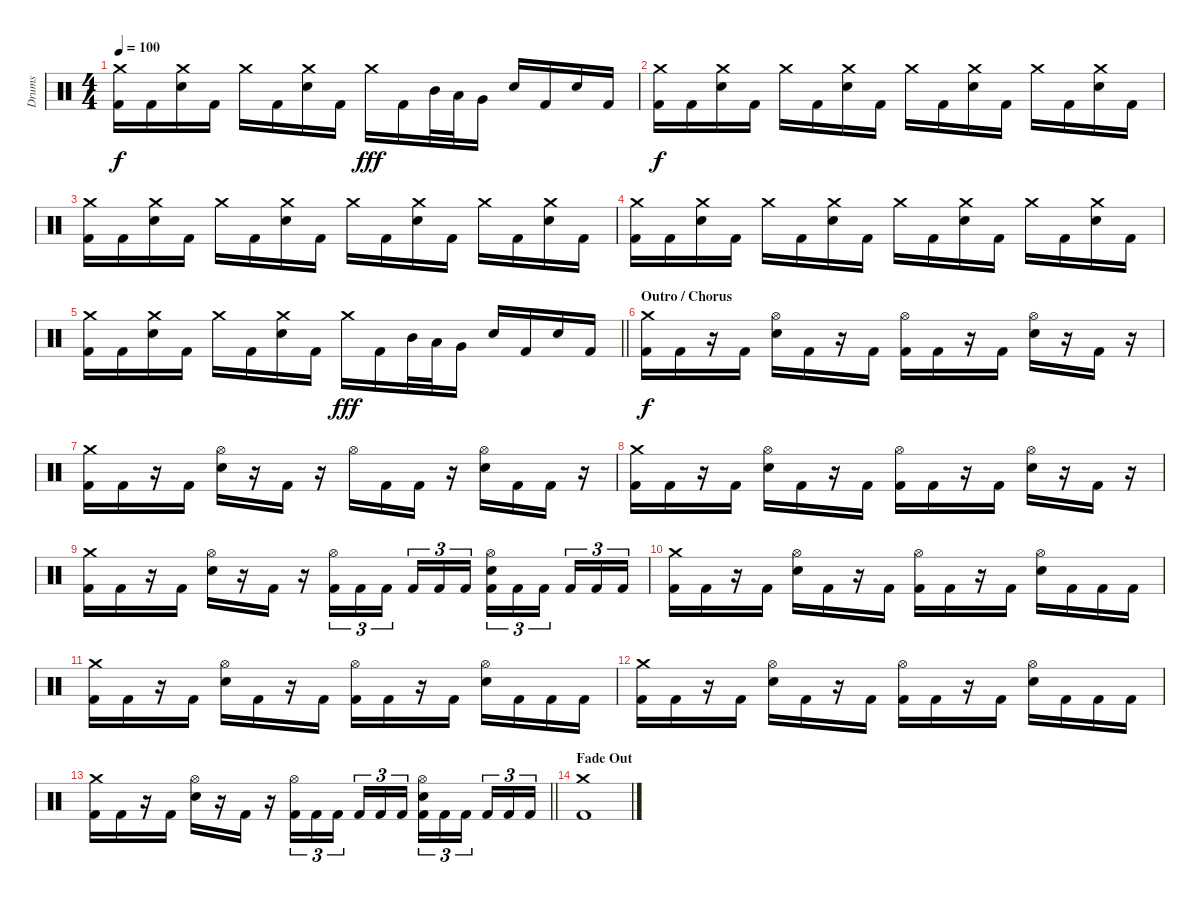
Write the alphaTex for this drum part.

\track ("Drums" "Drums") {instrument percussion}
\staff {score}
\articulation defaults
\ts (4 4)
\tempo 100
\clef neutral
\ks c
("Crash medium (hit)" "Kick (hit) 2").16{dy f} "Kick (hit) 2".16 ("Crash medium (hit)" "Electric Snare (hit)").16 "Kick (hit) 2".16 "Crash medium (hit)".16 "Kick (hit) 2".16 ("Crash medium (hit)" "Electric Snare (hit)").16 "Kick (hit) 2".16 "Crash medium (hit)".16{dy fff} "Kick (hit) 2".16 "Mid Tom (hit)".32 "Low Tom (hit)".32 "Very Low Tom (hit)".16 "Electric Snare (hit)".16 "Kick (hit) 2".16 "Electric Snare (hit)".16 "Kick (hit) 2".16 |
("Crash medium (hit)" "Kick (hit) 2").16{dy f} "Kick (hit) 2".16 ("Crash medium (hit)" "Electric Snare (hit)").16 "Kick (hit) 2".16 "Crash medium (hit)".16 "Kick (hit) 2".16 ("Crash medium (hit)" "Electric Snare (hit)").16 "Kick (hit) 2".16 "Crash medium (hit)".16 "Kick (hit) 2".16 ("Crash medium (hit)" "Electric Snare (hit)").16 "Kick (hit) 2".16 "Crash medium (hit)".16 "Kick (hit) 2".16 ("Crash medium (hit)" "Electric Snare (hit)").16 "Kick (hit) 2".16 |
("Crash medium (hit)" "Kick (hit) 2").16 "Kick (hit) 2".16 ("Crash medium (hit)" "Electric Snare (hit)").16 "Kick (hit) 2".16 "Crash medium (hit)".16 "Kick (hit) 2".16 ("Crash medium (hit)" "Electric Snare (hit)").16 "Kick (hit) 2".16 "Crash medium (hit)".16 "Kick (hit) 2".16 ("Crash medium (hit)" "Electric Snare (hit)").16 "Kick (hit) 2".16 "Crash medium (hit)".16 "Kick (hit) 2".16 ("Crash medium (hit)" "Electric Snare (hit)").16 "Kick (hit) 2".16 |
("Crash medium (hit)" "Kick (hit) 2").16 "Kick (hit) 2".16 ("Crash medium (hit)" "Electric Snare (hit)").16 "Kick (hit) 2".16 "Crash medium (hit)".16 "Kick (hit) 2".16 ("Crash medium (hit)" "Electric Snare (hit)").16 "Kick (hit) 2".16 "Crash medium (hit)".16 "Kick (hit) 2".16 ("Crash medium (hit)" "Electric Snare (hit)").16 "Kick (hit) 2".16 "Crash medium (hit)".16 "Kick (hit) 2".16 ("Crash medium (hit)" "Electric Snare (hit)").16 "Kick (hit) 2".16 |
\barLineRight lightlight
("Crash medium (hit)" "Kick (hit) 2").16 "Kick (hit) 2".16 ("Crash medium (hit)" "Electric Snare (hit)").16 "Kick (hit) 2".16 "Crash medium (hit)".16 "Kick (hit) 2".16 ("Crash medium (hit)" "Electric Snare (hit)").16 "Kick (hit) 2".16 "Crash medium (hit)".16{dy fff} "Kick (hit) 2".16 "Mid Tom (hit)".32 "Low Tom (hit)".32 "Very Low Tom (hit)".16 "Electric Snare (hit)".16 "Kick (hit) 2".16 "Electric Snare (hit)".16 "Kick (hit) 2".16 |
\section ("" "Outro / Chorus")
("Crash medium (hit)" "Kick (hit) 2").16{dy f} "Kick (hit) 2".16 r.16 "Kick (hit) 2".16 ("Hi-Hat (open)" "Electric Snare (hit)").16 "Kick (hit) 2".16 r.16 "Kick (hit) 2".16 ("Hi-Hat (open)" "Kick (hit) 2").16 "Kick (hit) 2".16 r.16 "Kick (hit) 2".16 ("Hi-Hat (open)" "Electric Snare (hit)").16 r.16 "Kick (hit) 2".16 r.16 |
("Crash medium (hit)" "Kick (hit) 2").16 "Kick (hit) 2".16 r.16 "Kick (hit) 2".16 ("Hi-Hat (open)" "Electric Snare (hit)").16 r.16 "Kick (hit) 2".16 r.16 "Hi-Hat (open)".16 "Kick (hit) 2".16 "Kick (hit) 2".16 r.16 ("Hi-Hat (open)" "Electric Snare (hit)").16 "Kick (hit) 2".16 "Kick (hit) 2".16 r.16 |
("Crash medium (hit)" "Kick (hit) 2").16 "Kick (hit) 2".16 r.16 "Kick (hit) 2".16 ("Hi-Hat (open)" "Electric Snare (hit)").16 "Kick (hit) 2".16 r.16 "Kick (hit) 2".16 ("Hi-Hat (open)" "Kick (hit) 2").16 "Kick (hit) 2".16 r.16 "Kick (hit) 2".16 ("Hi-Hat (open)" "Electric Snare (hit)").16 r.16 "Kick (hit) 2".16 r.16 |
("Crash medium (hit)" "Kick (hit) 2").16 "Kick (hit) 2".16 r.16 "Kick (hit) 2".16 ("Hi-Hat (open)" "Electric Snare (hit)").16 r.16 "Kick (hit) 2".16 r.16 ("Hi-Hat (open)" "Kick (hit) 2").16{tu (3 2)} "Kick (hit) 2".16{tu (3 2)} "Kick (hit) 2".16{tu (3 2) beam splitsecondary} "Kick (hit) 2".16{tu (3 2)} "Kick (hit) 2".16{tu (3 2)} "Kick (hit) 2".16{tu (3 2)} ("Hi-Hat (open)" "Electric Snare (hit)" "Kick (hit) 2").16{tu (3 2)} "Kick (hit) 2".16{tu (3 2)} "Kick (hit) 2".16{tu (3 2) beam splitsecondary} "Kick (hit) 2".16{tu (3 2)} "Kick (hit) 2".16{tu (3 2)} "Kick (hit) 2".16{tu (3 2)} |
("Crash medium (hit)" "Kick (hit) 2").16 "Kick (hit) 2".16 r.16 "Kick (hit) 2".16 ("Hi-Hat (open)" "Electric Snare (hit)").16 "Kick (hit) 2".16 r.16 "Kick (hit) 2".16 ("Hi-Hat (open)" "Kick (hit) 2").16 "Kick (hit) 2".16 r.16 "Kick (hit) 2".16 ("Hi-Hat (open)" "Electric Snare (hit)").16 "Kick (hit) 2".16 "Kick (hit) 2".16 "Kick (hit) 2".16 |
("Crash medium (hit)" "Kick (hit) 2").16 "Kick (hit) 2".16 r.16 "Kick (hit) 2".16 ("Hi-Hat (open)" "Electric Snare (hit)").16 "Kick (hit) 2".16 r.16 "Kick (hit) 2".16 ("Hi-Hat (open)" "Kick (hit) 2").16 "Kick (hit) 2".16 r.16 "Kick (hit) 2".16 ("Hi-Hat (open)" "Electric Snare (hit)").16 "Kick (hit) 2".16 "Kick (hit) 2".16 "Kick (hit) 2".16 |
("Crash medium (hit)" "Kick (hit) 2").16 "Kick (hit) 2".16 r.16 "Kick (hit) 2".16 ("Hi-Hat (open)" "Electric Snare (hit)").16 "Kick (hit) 2".16 r.16 "Kick (hit) 2".16 ("Hi-Hat (open)" "Kick (hit) 2").16 "Kick (hit) 2".16 r.16 "Kick (hit) 2".16 ("Hi-Hat (open)" "Electric Snare (hit)").16 "Kick (hit) 2".16 "Kick (hit) 2".16 "Kick (hit) 2".16 |
\barLineRight lightlight
("Crash medium (hit)" "Kick (hit) 2").16 "Kick (hit) 2".16 r.16 "Kick (hit) 2".16 ("Hi-Hat (open)" "Electric Snare (hit)").16 r.16 "Kick (hit) 2".16 r.16 ("Hi-Hat (open)" "Kick (hit) 2").16{tu (3 2)} "Kick (hit) 2".16{tu (3 2)} "Kick (hit) 2".16{tu (3 2) beam splitsecondary} "Kick (hit) 2".16{tu (3 2)} "Kick (hit) 2".16{tu (3 2)} "Kick (hit) 2".16{tu (3 2)} ("Hi-Hat (open)" "Electric Snare (hit)" "Kick (hit) 2").16{tu (3 2)} "Kick (hit) 2".16{tu (3 2)} "Kick (hit) 2".16{tu (3 2) beam splitsecondary} "Kick (hit) 2".16{tu (3 2)} "Kick (hit) 2".16{tu (3 2)} "Kick (hit) 2".16{tu (3 2)} |
\section ("" "Fade Out")
("Crash medium (hit)" "Kick (hit) 2").1
